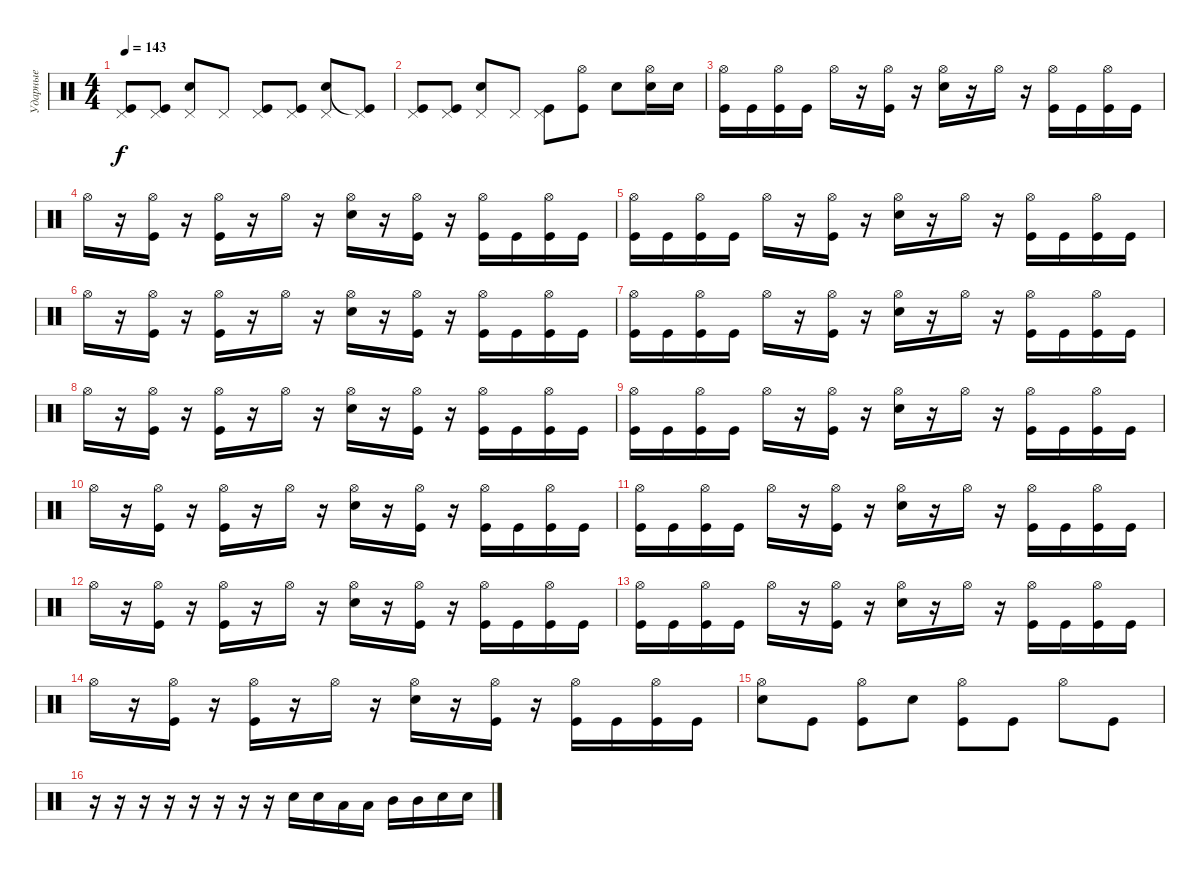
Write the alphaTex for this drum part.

\track ("Ударные" "Ударные") {instrument percussion}
\staff {score}
\articulation defaults
\ts (4 4)
\tempo 143
\clef neutral
\ks c
("Pedal Hi-Hat (hit)" "Kick (hit)").8{dy f} ("Pedal Hi-Hat (hit)" "Kick (hit)").8 ("Pedal Hi-Hat (hit)" "Electric Snare (hit)").8 "Pedal Hi-Hat (hit)".8 ("Pedal Hi-Hat (hit)" "Kick (hit)").8 ("Pedal Hi-Hat (hit)" "Kick (hit)").8 ("Pedal Hi-Hat (hit)" "Electric Snare (hit)").8 ("Pedal Hi-Hat (hit)" "Kick (hit)"{t}).8 |
("Pedal Hi-Hat (hit)" "Kick (hit)").8 ("Pedal Hi-Hat (hit)" "Kick (hit)").8 ("Pedal Hi-Hat (hit)" "Electric Snare (hit)").8 "Pedal Hi-Hat (hit)".8 ("Pedal Hi-Hat (hit)" "Kick (hit)").8 ("Hi-Hat (open)" "Kick (hit)").8 "Electric Snare (hit)".8 ("Hi-Hat (open)" "Electric Snare (hit)").16 "Electric Snare (hit)".16 |
("Hi-Hat (open)" "Kick (hit)").16 "Kick (hit)".16 ("Hi-Hat (open)" "Kick (hit)").16 "Kick (hit)".16 "Hi-Hat (open)".16 r.16 ("Hi-Hat (open)" "Kick (hit)").16 r.16 ("Hi-Hat (open)" "Electric Snare (hit)").16 r.16 "Hi-Hat (open)".16 r.16 ("Hi-Hat (open)" "Kick (hit)").16 "Kick (hit)".16 ("Hi-Hat (open)" "Kick (hit)").16 "Kick (hit)".16 |
"Hi-Hat (open)".16 r.16 ("Hi-Hat (open)" "Kick (hit)").16 r.16 ("Hi-Hat (open)" "Kick (hit)").16 r.16 "Hi-Hat (open)".16 r.16 ("Hi-Hat (open)" "Electric Snare (hit)").16 r.16 ("Hi-Hat (open)" "Kick (hit)").16 r.16 ("Hi-Hat (open)" "Kick (hit)").16 "Kick (hit)".16 ("Hi-Hat (open)" "Kick (hit)").16 "Kick (hit)".16 |
("Hi-Hat (open)" "Kick (hit)").16 "Kick (hit)".16 ("Hi-Hat (open)" "Kick (hit)").16 "Kick (hit)".16 "Hi-Hat (open)".16 r.16 ("Hi-Hat (open)" "Kick (hit)").16 r.16 ("Hi-Hat (open)" "Electric Snare (hit)").16 r.16 "Hi-Hat (open)".16 r.16 ("Hi-Hat (open)" "Kick (hit)").16 "Kick (hit)".16 ("Hi-Hat (open)" "Kick (hit)").16 "Kick (hit)".16 |
"Hi-Hat (open)".16 r.16 ("Hi-Hat (open)" "Kick (hit)").16 r.16 ("Hi-Hat (open)" "Kick (hit)").16 r.16 "Hi-Hat (open)".16 r.16 ("Hi-Hat (open)" "Electric Snare (hit)").16 r.16 ("Hi-Hat (open)" "Kick (hit)").16 r.16 ("Hi-Hat (open)" "Kick (hit)").16 "Kick (hit)".16 ("Hi-Hat (open)" "Kick (hit)").16 "Kick (hit)".16 |
("Hi-Hat (open)" "Kick (hit)").16 "Kick (hit)".16 ("Hi-Hat (open)" "Kick (hit)").16 "Kick (hit)".16 "Hi-Hat (open)".16 r.16 ("Hi-Hat (open)" "Kick (hit)").16 r.16 ("Hi-Hat (open)" "Electric Snare (hit)").16 r.16 "Hi-Hat (open)".16 r.16 ("Hi-Hat (open)" "Kick (hit)").16 "Kick (hit)".16 ("Hi-Hat (open)" "Kick (hit)").16 "Kick (hit)".16 |
"Hi-Hat (open)".16 r.16 ("Hi-Hat (open)" "Kick (hit)").16 r.16 ("Hi-Hat (open)" "Kick (hit)").16 r.16 "Hi-Hat (open)".16 r.16 ("Hi-Hat (open)" "Electric Snare (hit)").16 r.16 ("Hi-Hat (open)" "Kick (hit)").16 r.16 ("Hi-Hat (open)" "Kick (hit)").16 "Kick (hit)".16 ("Hi-Hat (open)" "Kick (hit)").16 "Kick (hit)".16 |
("Hi-Hat (open)" "Kick (hit)").16 "Kick (hit)".16 ("Hi-Hat (open)" "Kick (hit)").16 "Kick (hit)".16 "Hi-Hat (open)".16 r.16 ("Hi-Hat (open)" "Kick (hit)").16 r.16 ("Hi-Hat (open)" "Electric Snare (hit)").16 r.16 "Hi-Hat (open)".16 r.16 ("Hi-Hat (open)" "Kick (hit)").16 "Kick (hit)".16 ("Hi-Hat (open)" "Kick (hit)").16 "Kick (hit)".16 |
"Hi-Hat (open)".16 r.16 ("Hi-Hat (open)" "Kick (hit)").16 r.16 ("Hi-Hat (open)" "Kick (hit)").16 r.16 "Hi-Hat (open)".16 r.16 ("Hi-Hat (open)" "Electric Snare (hit)").16 r.16 ("Hi-Hat (open)" "Kick (hit)").16 r.16 ("Hi-Hat (open)" "Kick (hit)").16 "Kick (hit)".16 ("Hi-Hat (open)" "Kick (hit)").16 "Kick (hit)".16 |
("Hi-Hat (open)" "Kick (hit)").16 "Kick (hit)".16 ("Hi-Hat (open)" "Kick (hit)").16 "Kick (hit)".16 "Hi-Hat (open)".16 r.16 ("Hi-Hat (open)" "Kick (hit)").16 r.16 ("Hi-Hat (open)" "Electric Snare (hit)").16 r.16 "Hi-Hat (open)".16 r.16 ("Hi-Hat (open)" "Kick (hit)").16 "Kick (hit)".16 ("Hi-Hat (open)" "Kick (hit)").16 "Kick (hit)".16 |
"Hi-Hat (open)".16 r.16 ("Hi-Hat (open)" "Kick (hit)").16 r.16 ("Hi-Hat (open)" "Kick (hit)").16 r.16 "Hi-Hat (open)".16 r.16 ("Hi-Hat (open)" "Electric Snare (hit)").16 r.16 ("Hi-Hat (open)" "Kick (hit)").16 r.16 ("Hi-Hat (open)" "Kick (hit)").16 "Kick (hit)".16 ("Hi-Hat (open)" "Kick (hit)").16 "Kick (hit)".16 |
("Hi-Hat (open)" "Kick (hit)").16 "Kick (hit)".16 ("Hi-Hat (open)" "Kick (hit)").16 "Kick (hit)".16 "Hi-Hat (open)".16 r.16 ("Hi-Hat (open)" "Kick (hit)").16 r.16 ("Hi-Hat (open)" "Electric Snare (hit)").16 r.16 "Hi-Hat (open)".16 r.16 ("Hi-Hat (open)" "Kick (hit)").16 "Kick (hit)".16 ("Hi-Hat (open)" "Kick (hit)").16 "Kick (hit)".16 |
"Hi-Hat (open)".16 r.16 ("Hi-Hat (open)" "Kick (hit)").16 r.16 ("Hi-Hat (open)" "Kick (hit)").16 r.16 "Hi-Hat (open)".16 r.16 ("Hi-Hat (open)" "Electric Snare (hit)").16 r.16 ("Hi-Hat (open)" "Kick (hit)").16 r.16 ("Hi-Hat (open)" "Kick (hit)").16 "Kick (hit)".16 ("Hi-Hat (open)" "Kick (hit)").16 "Kick (hit)".16 |
("Hi-Hat (open)" "Electric Snare (hit)").8 "Kick (hit)".8 ("Hi-Hat (open)" "Kick (hit)").8 "Electric Snare (hit)".8 ("Hi-Hat (open)" "Kick (hit)").8 "Kick (hit)".8 "Hi-Hat (open)".8 "Kick (hit)".8 |
r.16 r.16 r.16 r.16 r.16 r.16 r.16 r.16 "Electric Snare (hit)".16 "Electric Snare (hit)".16 "Low Tom (hit)".16 "Low Tom (hit)".16 "Mid Tom (hit)".16 "Mid Tom (hit)".16 "Electric Snare (hit)".16 "Electric Snare (hit)".16
